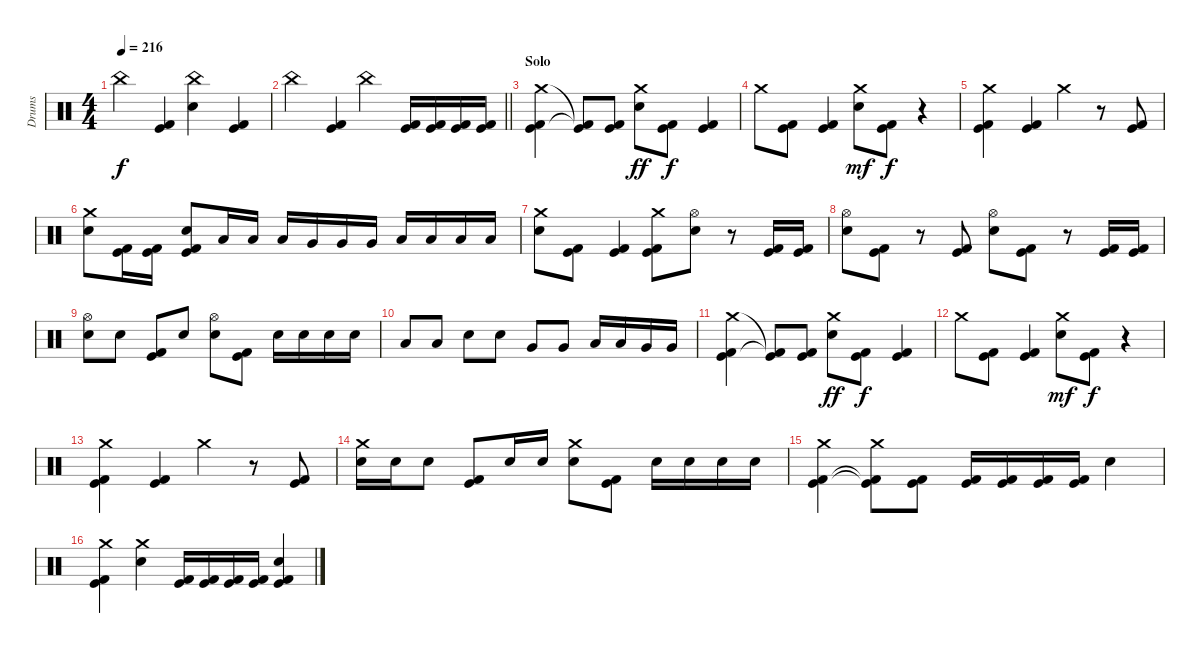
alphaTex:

\track ("Drums" "Drums") {instrument percussion}
\staff {score}
\articulation defaults
\ts (4 4)
\tempo 216
\clef neutral
\ks c "China (hit)".4{dy f}
("Kick (hit)" "Kick (hit) 2").4 ("China (hit)" "Electric Snare (hit)").4 ("Kick (hit)" "Kick (hit) 2").4 |
\barLineRight lightlight "China (hit)".4
("Kick (hit)" "Kick (hit) 2").4 "China (hit)".4 ("Kick (hit)" "Kick (hit) 2").16 ("Kick (hit)" "Kick (hit) 2").16 ("Kick (hit)" "Kick (hit) 2").16 ("Kick (hit)" "Kick (hit) 2").16 |
\section ("" "Solo")
("Crash medium (hit)" "Kick (hit)" "Kick (hit) 2").4 ("Kick (hit)"{t} "Kick (hit) 2"{t}).8 ("Kick (hit)" "Kick (hit) 2").8 ("Crash medium (hit)" "Electric Snare (hit)").8{dy ff} ("Kick (hit)" "Kick (hit) 2").8{dy f} ("Kick (hit)" "Kick (hit) 2").4 |
"Crash medium (hit)".8 ("Kick (hit)" "Kick (hit) 2").8 ("Kick (hit)" "Kick (hit) 2").4 ("Crash medium (hit)" "Electric Snare (hit)").8{dy mf} ("Kick (hit)" "Kick (hit) 2").8{dy f} r.4 |
("Crash medium (hit)" "Kick (hit)" "Kick (hit) 2").4 ("Kick (hit)" "Kick (hit) 2").4 "Crash medium (hit)".4 r.8 ("Kick (hit)" "Kick (hit) 2").8 |
("Crash medium (hit)" "Electric Snare (hit)").8 ("Kick (hit)" "Kick (hit) 2").16 ("Kick (hit)" "Kick (hit) 2").16 ("Electric Snare (hit)" "Kick (hit)" "Kick (hit) 2").8 "Low Tom (hit)".16 "Low Tom (hit)".16 "Low Tom (hit)".16 "Very Low Tom (hit)".16 "Very Low Tom (hit)".16 "Very Low Tom (hit)".16 "Low Floor Tom (hit)".16 "Low Floor Tom (hit)".16 "Low Floor Tom (hit)".16 "Low Floor Tom (hit)".16 |
("Crash medium (hit)" "Electric Snare (hit)").8 ("Kick (hit)" "Kick (hit) 2").8 ("Kick (hit)" "Kick (hit) 2").4 ("Crash medium (hit)" "Kick (hit)" "Kick (hit) 2").8 ("Hi-Hat (open)" "Electric Snare (hit)").8 r.8 ("Kick (hit)" "Kick (hit) 2").16 ("Kick (hit)" "Kick (hit) 2").16 |
("Hi-Hat (open)" "Electric Snare (hit)").8 ("Kick (hit)" "Kick (hit) 2").8 r.8 ("Kick (hit)" "Kick (hit) 2").8 ("Hi-Hat (open)" "Electric Snare (hit)").8 ("Kick (hit)" "Kick (hit) 2").8 r.8 ("Kick (hit)" "Kick (hit) 2").16 ("Kick (hit)" "Kick (hit) 2").16 |
("Hi-Hat (open)" "Electric Snare (hit)").8 "Electric Snare (hit)".8 ("Kick (hit)" "Kick (hit) 2").8 "Electric Snare (hit)".8 ("Hi-Hat (open)" "Electric Snare (hit)").8 ("Kick (hit)" "Kick (hit) 2").8 "Electric Snare (hit)".16 "Electric Snare (hit)".16 "Electric Snare (hit)".16 "Electric Snare (hit)".16 |
"Low Tom (hit)".8 "Low Tom (hit)".8 "Electric Snare (hit)".8 "Electric Snare (hit)".8 "Very Low Tom (hit)".8 "Very Low Tom (hit)".8 "Low Tom (hit)".16 "Low Tom (hit)".16 "Very Low Tom (hit)".16 "Very Low Tom (hit)".16 |
("Crash medium (hit)" "Kick (hit)" "Kick (hit) 2").4 ("Kick (hit)"{t} "Kick (hit) 2"{t}).8 ("Kick (hit)" "Kick (hit) 2").8 ("Crash medium (hit)" "Electric Snare (hit)").8{dy ff} ("Kick (hit)" "Kick (hit) 2").8{dy f} ("Kick (hit)" "Kick (hit) 2").4 |
"Crash medium (hit)".8 ("Kick (hit)" "Kick (hit) 2").8 ("Kick (hit)" "Kick (hit) 2").4 ("Crash medium (hit)" "Electric Snare (hit)").8{dy mf} ("Kick (hit)" "Kick (hit) 2").8{dy f} r.4 |
("Crash medium (hit)" "Kick (hit)" "Kick (hit) 2").4 ("Kick (hit)" "Kick (hit) 2").4 "Crash medium (hit)".4 r.8 ("Kick (hit)" "Kick (hit) 2").8 |
("Crash medium (hit)" "Electric Snare (hit)").16 "Electric Snare (hit)".16 "Electric Snare (hit)".8 ("Kick (hit)" "Kick (hit) 2").8 "Electric Snare (hit)".16 "Electric Snare (hit)".16 ("Crash medium (hit)" "Electric Snare (hit)").8 ("Kick (hit)" "Kick (hit) 2").8 "Electric Snare (hit)".16 "Electric Snare (hit)".16 "Electric Snare (hit)".16 "Electric Snare (hit)".16 |
("Crash medium (hit)" "Kick (hit)" "Kick (hit) 2").4 ("Crash medium (hit)" "Kick (hit)"{t} "Kick (hit) 2"{t}).8 ("Kick (hit)" "Kick (hit) 2").8 ("Kick (hit)" "Kick (hit) 2").16 ("Kick (hit)" "Kick (hit) 2").16 ("Kick (hit)" "Kick (hit) 2").16 ("Kick (hit)" "Kick (hit) 2").16 "Electric Snare (hit)".4 |
("Crash medium (hit)" "Kick (hit)" "Kick (hit) 2").4 ("Crash medium (hit)" "Electric Snare (hit)").4 ("Kick (hit)" "Kick (hit) 2").16 ("Kick (hit)" "Kick (hit) 2").16 ("Kick (hit)" "Kick (hit) 2").16 ("Kick (hit)" "Kick (hit) 2").16 ("Electric Snare (hit)" "Kick (hit)" "Kick (hit) 2").4
